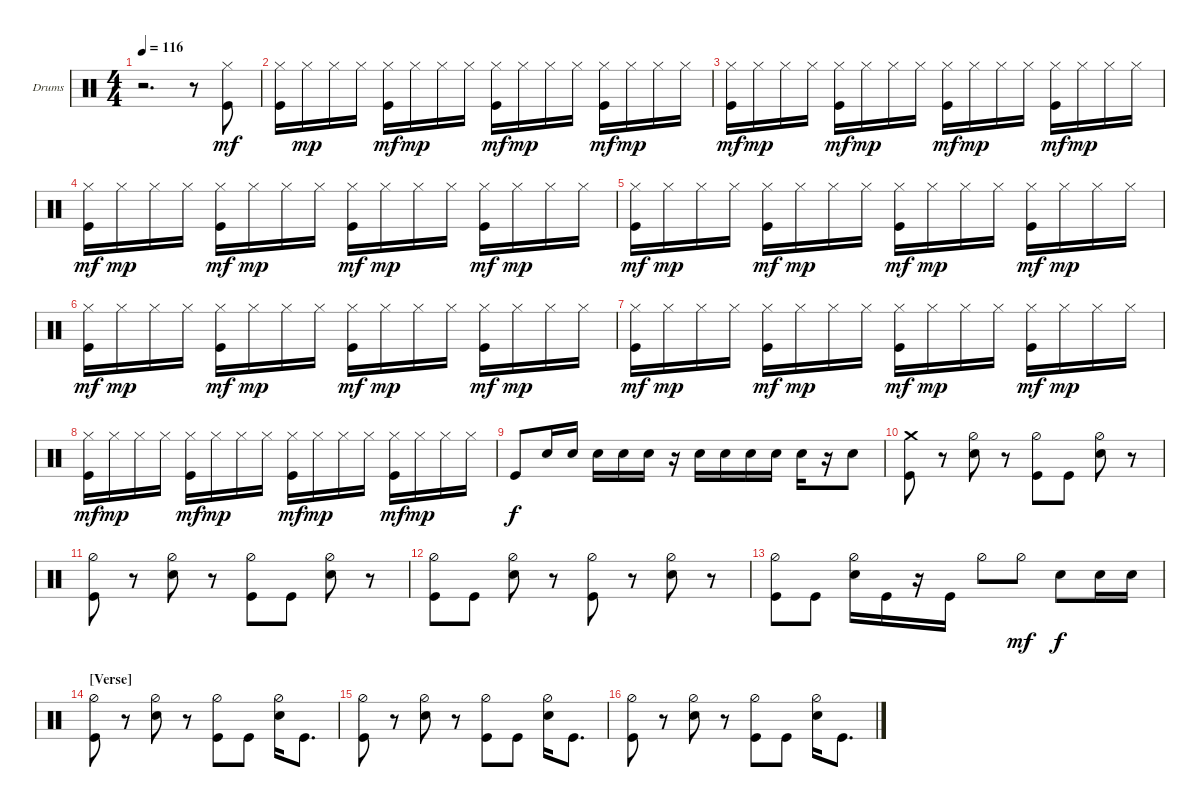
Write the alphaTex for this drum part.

\bracketExtendMode nobrackets
\firstSystemTrackNameOrientation horizontal
\otherSystemsTrackNameOrientation horizontal
\track ("Drumkit" "Drums") {instrument percussion}
\staff {score}
\articulation defaults
\ts (4 4)
\tempo 116
\clef neutral
\ks c
r.2{d dy mf} r.8 ("Kick (hit)" "Hi-Hat (closed)").8 |
("Hi-Hat (closed)" "Kick (hit)").16 "Hi-Hat (closed)".16{dy mp} "Hi-Hat (closed)".16 "Hi-Hat (closed)".16 ("Hi-Hat (closed)" "Kick (hit)").16{dy mf} "Hi-Hat (closed)".16{dy mp} "Hi-Hat (closed)".16 "Hi-Hat (closed)".16 ("Hi-Hat (closed)" "Kick (hit)").16{dy mf} "Hi-Hat (closed)".16{dy mp} "Hi-Hat (closed)".16 "Hi-Hat (closed)".16 ("Hi-Hat (closed)" "Kick (hit)").16{dy mf} "Hi-Hat (closed)".16{dy mp} "Hi-Hat (closed)".16 "Hi-Hat (closed)".16 |
("Hi-Hat (closed)" "Kick (hit)").16{dy mf} "Hi-Hat (closed)".16{dy mp} "Hi-Hat (closed)".16 "Hi-Hat (closed)".16 ("Hi-Hat (closed)" "Kick (hit)").16{dy mf} "Hi-Hat (closed)".16{dy mp} "Hi-Hat (closed)".16 "Hi-Hat (closed)".16 ("Hi-Hat (closed)" "Kick (hit)").16{dy mf} "Hi-Hat (closed)".16{dy mp} "Hi-Hat (closed)".16 "Hi-Hat (closed)".16 ("Hi-Hat (closed)" "Kick (hit)").16{dy mf} "Hi-Hat (closed)".16{dy mp} "Hi-Hat (closed)".16 "Hi-Hat (closed)".16 |
("Hi-Hat (closed)" "Kick (hit)").16{dy mf} "Hi-Hat (closed)".16{dy mp} "Hi-Hat (closed)".16 "Hi-Hat (closed)".16 ("Hi-Hat (closed)" "Kick (hit)").16{dy mf} "Hi-Hat (closed)".16{dy mp} "Hi-Hat (closed)".16 "Hi-Hat (closed)".16 ("Hi-Hat (closed)" "Kick (hit)").16{dy mf} "Hi-Hat (closed)".16{dy mp} "Hi-Hat (closed)".16 "Hi-Hat (closed)".16 ("Hi-Hat (closed)" "Kick (hit)").16{dy mf} "Hi-Hat (closed)".16{dy mp} "Hi-Hat (closed)".16 "Hi-Hat (closed)".16 |
("Hi-Hat (closed)" "Kick (hit)").16{dy mf} "Hi-Hat (closed)".16{dy mp} "Hi-Hat (closed)".16 "Hi-Hat (closed)".16 ("Hi-Hat (closed)" "Kick (hit)").16{dy mf} "Hi-Hat (closed)".16{dy mp} "Hi-Hat (closed)".16 "Hi-Hat (closed)".16 ("Hi-Hat (closed)" "Kick (hit)").16{dy mf} "Hi-Hat (closed)".16{dy mp} "Hi-Hat (closed)".16 "Hi-Hat (closed)".16 ("Hi-Hat (closed)" "Kick (hit)").16{dy mf} "Hi-Hat (closed)".16{dy mp} "Hi-Hat (closed)".16 "Hi-Hat (closed)".16 |
("Hi-Hat (closed)" "Kick (hit)").16{dy mf} "Hi-Hat (closed)".16{dy mp} "Hi-Hat (closed)".16 "Hi-Hat (closed)".16 ("Hi-Hat (closed)" "Kick (hit)").16{dy mf} "Hi-Hat (closed)".16{dy mp} "Hi-Hat (closed)".16 "Hi-Hat (closed)".16 ("Hi-Hat (closed)" "Kick (hit)").16{dy mf} "Hi-Hat (closed)".16{dy mp} "Hi-Hat (closed)".16 "Hi-Hat (closed)".16 ("Hi-Hat (closed)" "Kick (hit)").16{dy mf} "Hi-Hat (closed)".16{dy mp} "Hi-Hat (closed)".16 "Hi-Hat (closed)".16 |
("Hi-Hat (closed)" "Kick (hit)").16{dy mf} "Hi-Hat (closed)".16{dy mp} "Hi-Hat (closed)".16 "Hi-Hat (closed)".16 ("Hi-Hat (closed)" "Kick (hit)").16{dy mf} "Hi-Hat (closed)".16{dy mp} "Hi-Hat (closed)".16 "Hi-Hat (closed)".16 ("Hi-Hat (closed)" "Kick (hit)").16{dy mf} "Hi-Hat (closed)".16{dy mp} "Hi-Hat (closed)".16 "Hi-Hat (closed)".16 ("Hi-Hat (closed)" "Kick (hit)").16{dy mf} "Hi-Hat (closed)".16{dy mp} "Hi-Hat (closed)".16 "Hi-Hat (closed)".16 |
("Hi-Hat (closed)" "Kick (hit)").16{dy mf} "Hi-Hat (closed)".16{dy mp} "Hi-Hat (closed)".16 "Hi-Hat (closed)".16 ("Hi-Hat (closed)" "Kick (hit)").16{dy mf} "Hi-Hat (closed)".16{dy mp} "Hi-Hat (closed)".16 "Hi-Hat (closed)".16 ("Hi-Hat (closed)" "Kick (hit)").16{dy mf} "Hi-Hat (closed)".16{dy mp} "Hi-Hat (closed)".16 "Hi-Hat (closed)".16 ("Hi-Hat (closed)" "Kick (hit)").16{dy mf} "Hi-Hat (closed)".16{dy mp} "Hi-Hat (closed)".16 "Hi-Hat (closed)".16 |
"Kick (hit)".8{dy f} "Snare (hit) 2".16 "Snare (hit) 2".16 "Snare (hit) 2".16 "Snare (hit) 2".16 "Snare (hit) 2".16 r.16 "Snare (hit) 2".16 "Snare (hit) 2".16 "Snare (hit) 2".16 "Snare (hit) 2".16 "Snare (hit) 2".16 r.16 "Snare (hit) 2".8 |
("Kick (hit)" "Crash medium (hit)").8 r.8 ("Snare (hit) 2" "Hi-Hat (half)").8 r.8 ("Hi-Hat (half)" "Kick (hit)").8 "Kick (hit)".8 ("Hi-Hat (half)" "Snare (hit) 2").8 r.8 |
("Hi-Hat (half)" "Kick (hit)").8 r.8 ("Snare (hit) 2" "Hi-Hat (half)").8 r.8 ("Hi-Hat (half)" "Kick (hit)").8 "Kick (hit)".8 ("Hi-Hat (half)" "Snare (hit) 2").8 r.8 |
("Hi-Hat (half)" "Kick (hit)").8 "Kick (hit)".8 ("Snare (hit) 2" "Hi-Hat (half)").8 r.8 ("Hi-Hat (half)" "Kick (hit)").8 r.8 ("Hi-Hat (half)" "Snare (hit) 2").8 r.8 |
("Hi-Hat (half)" "Kick (hit)").8 "Kick (hit)".8 ("Snare (hit) 2" "Hi-Hat (half)").16 "Kick (hit)".16 r.16 "Kick (hit)".16 "Hi-Hat (half)".8 "Hi-Hat (half)".8{dy mf} "Snare (hit) 2".8{dy f} "Snare (hit) 2".16 "Snare (hit) 2".16 |
\section ("" "[Verse]")
("Hi-Hat (half)" "Kick (hit)").8 r.8 ("Snare (hit) 2" "Hi-Hat (half)").8 r.8 ("Hi-Hat (half)" "Kick (hit)").8 "Kick (hit)".8 ("Hi-Hat (half)" "Snare (hit) 2").16 "Kick (hit)".8{d} |
("Hi-Hat (half)" "Kick (hit)").8 r.8 ("Snare (hit) 2" "Hi-Hat (half)").8 r.8 ("Hi-Hat (half)" "Kick (hit)").8 "Kick (hit)".8 ("Hi-Hat (half)" "Snare (hit) 2").16 "Kick (hit)".8{d} |
("Hi-Hat (half)" "Kick (hit)").8 r.8 ("Snare (hit) 2" "Hi-Hat (half)").8 r.8 ("Hi-Hat (half)" "Kick (hit)").8 "Kick (hit)".8 ("Hi-Hat (half)" "Snare (hit) 2").16 "Kick (hit)".8{d}
